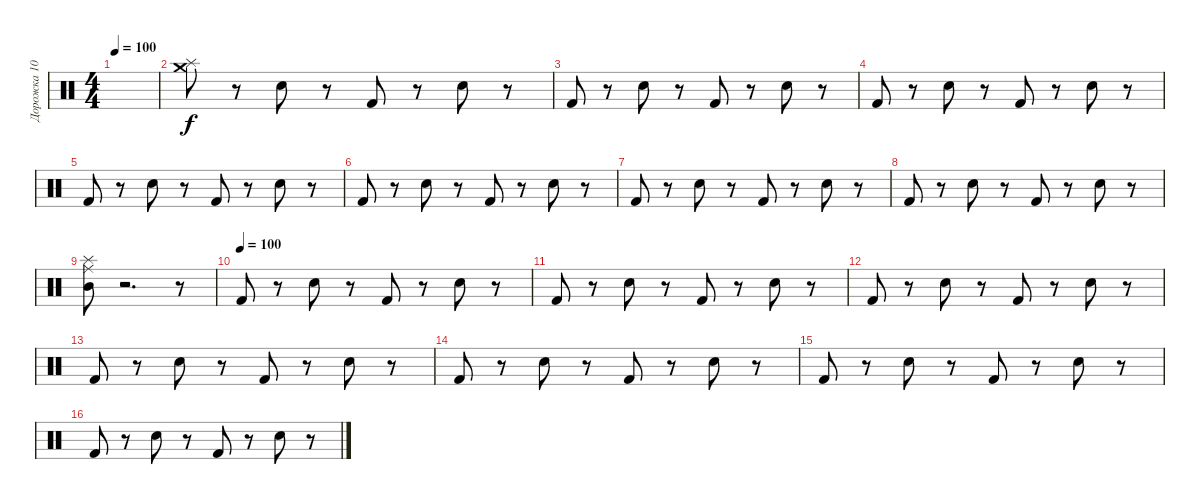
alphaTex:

\track ("Дорожка 10" "Дорожка 10") {instrument percussion}
\staff {score}
\articulation defaults
\ts (4 4)
\tempo 100
\clef neutral
\ks c
|
("Splash (hit)" "Crash medium (hit)").8 r.8 "Electric Snare (hit)".8 r.8 "Kick (hit) 2".8 r.8 "Electric Snare (hit)".8 r.8 |
"Kick (hit) 2".8 r.8 "Electric Snare (hit)".8 r.8 "Kick (hit) 2".8 r.8 "Electric Snare (hit)".8 r.8 |
"Kick (hit) 2".8 r.8 "Electric Snare (hit)".8 r.8 "Kick (hit) 2".8 r.8 "Electric Snare (hit)".8 r.8 |
"Kick (hit) 2".8 r.8 "Electric Snare (hit)".8 r.8 "Kick (hit) 2".8 r.8 "Electric Snare (hit)".8 r.8 |
"Kick (hit) 2".8 r.8 "Electric Snare (hit)".8 r.8 "Kick (hit) 2".8 r.8 "Electric Snare (hit)".8 r.8 |
"Kick (hit) 2".8 r.8 "Electric Snare (hit)".8 r.8 "Kick (hit) 2".8 r.8 "Electric Snare (hit)".8 r.8 |
"Kick (hit) 2".8 r.8 "Electric Snare (hit)".8 r.8 "Kick (hit) 2".8 r.8 "Electric Snare (hit)".8 r.8 |
("Mid Tom (hit)" "Splash (hit)" "Ride (middle)").8 r.2{d} r.8 |
\tempo (100)
"Kick (hit) 2".8 r.8 "Electric Snare (hit)".8 r.8 "Kick (hit) 2".8 r.8 "Electric Snare (hit)".8 r.8 |
"Kick (hit) 2".8 r.8 "Electric Snare (hit)".8 r.8 "Kick (hit) 2".8 r.8 "Electric Snare (hit)".8 r.8 |
"Kick (hit) 2".8 r.8 "Electric Snare (hit)".8 r.8 "Kick (hit) 2".8 r.8 "Electric Snare (hit)".8 r.8 |
"Kick (hit) 2".8 r.8 "Electric Snare (hit)".8 r.8 "Kick (hit) 2".8 r.8 "Electric Snare (hit)".8 r.8 |
"Kick (hit) 2".8 r.8 "Electric Snare (hit)".8 r.8 "Kick (hit) 2".8 r.8 "Electric Snare (hit)".8 r.8 |
"Kick (hit) 2".8 r.8 "Electric Snare (hit)".8 r.8 "Kick (hit) 2".8 r.8 "Electric Snare (hit)".8 r.8 |
"Kick (hit) 2".8 r.8 "Electric Snare (hit)".8 r.8 "Kick (hit) 2".8 r.8 "Electric Snare (hit)".8 r.8
